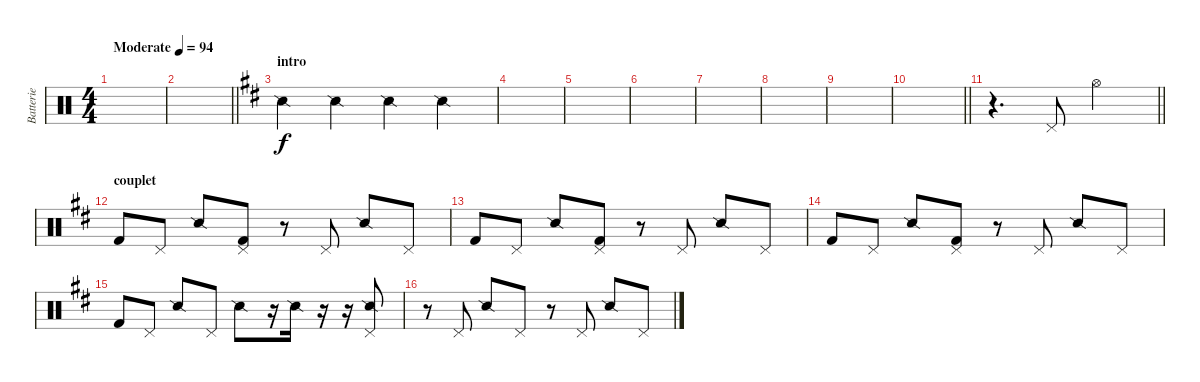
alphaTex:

\track ("Batterie" "Batterie") {instrument percussion}
\staff {score}
\articulation defaults
\ts (4 4)
\tempo (94 "Moderate")
\clef neutral
\ks c
|
\barLineRight lightlight
|
\section ("" "intro")
\ks d "Snare (side stick) 2".4 "Snare (side stick) 2".4 "Snare (side stick) 2".4 "Snare (side stick) 2".4
|
|
|
|
|
|
|
\barLineRight lightlight
|
\barLineRight lightlight
r.4{d} "Pedal Hi-Hat (hit)".8 "Hi-Hat (open)".2 |
\section ("" "couplet")
"Kick (hit) 2".8 "Pedal Hi-Hat (hit)".8 "Snare (side stick) 2".8 ("Pedal Hi-Hat (hit)" "Kick (hit) 2").8 r.8 "Pedal Hi-Hat (hit)".8 "Snare (side stick) 2".8 "Pedal Hi-Hat (hit)".8 |
"Kick (hit) 2".8 "Pedal Hi-Hat (hit)".8 "Snare (side stick) 2".8 ("Pedal Hi-Hat (hit)" "Kick (hit) 2").8 r.8 "Pedal Hi-Hat (hit)".8 "Snare (side stick) 2".8 "Pedal Hi-Hat (hit)".8 |
"Kick (hit) 2".8 "Pedal Hi-Hat (hit)".8 "Snare (side stick) 2".8 ("Pedal Hi-Hat (hit)" "Kick (hit) 2").8 r.8 "Pedal Hi-Hat (hit)".8 "Snare (side stick) 2".8 "Pedal Hi-Hat (hit)".8 |
"Kick (hit) 2".8 "Pedal Hi-Hat (hit)".8 "Snare (side stick) 2".8 "Pedal Hi-Hat (hit)".8 "Snare (side stick) 2".8 r.16 "Snare (side stick) 2".16 r.16 r.16 ("Pedal Hi-Hat (hit)" "Snare (side stick) 2").8 |
r.8 "Pedal Hi-Hat (hit)".8 "Snare (side stick) 2".8 "Pedal Hi-Hat (hit)".8 r.8 "Pedal Hi-Hat (hit)".8 "Snare (side stick) 2".8 "Pedal Hi-Hat (hit)".8
